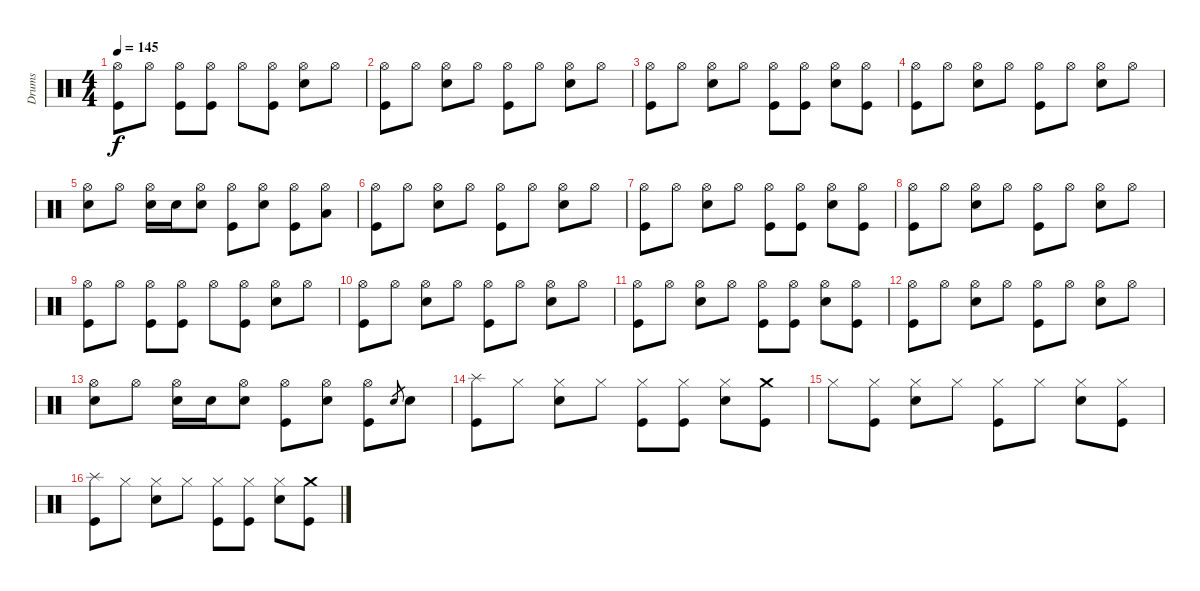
\track ("Drums" "Drums") {instrument percussion}
\staff {score}
\articulation defaults
\ts (4 4)
\tempo 145
\clef neutral
\ks c
("Hi-Hat (open)" "Kick (hit)").8{dy f} "Hi-Hat (open)".8 ("Hi-Hat (open)" "Kick (hit)").8 ("Hi-Hat (open)" "Kick (hit)").8 "Hi-Hat (open)".8 ("Hi-Hat (open)" "Kick (hit)").8 ("Hi-Hat (open)" "Snare (hit) 2").8 "Hi-Hat (open)".8 |
("Hi-Hat (open)" "Kick (hit)").8 "Hi-Hat (open)".8 ("Hi-Hat (open)" "Snare (hit) 2").8 "Hi-Hat (open)".8 ("Hi-Hat (open)" "Kick (hit)").8 "Hi-Hat (open)".8 ("Hi-Hat (open)" "Snare (hit) 2").8 "Hi-Hat (open)".8 |
("Hi-Hat (open)" "Kick (hit)").8 "Hi-Hat (open)".8 ("Hi-Hat (open)" "Snare (hit) 2").8 "Hi-Hat (open)".8 ("Hi-Hat (open)" "Kick (hit)").8 ("Hi-Hat (open)" "Kick (hit)").8 ("Hi-Hat (open)" "Snare (hit) 2").8 ("Hi-Hat (open)" "Kick (hit)").8 |
("Hi-Hat (open)" "Kick (hit)").8 "Hi-Hat (open)".8 ("Hi-Hat (open)" "Snare (hit) 2").8 "Hi-Hat (open)".8 ("Hi-Hat (open)" "Kick (hit)").8 "Hi-Hat (open)".8 ("Hi-Hat (open)" "Snare (hit) 2").8 "Hi-Hat (open)".8 |
("Hi-Hat (open)" "Snare (hit) 2").8 "Hi-Hat (open)".8 ("Hi-Hat (open)" "Snare (hit) 2").16 "Snare (hit) 2".16 ("Hi-Hat (open)" "Snare (hit) 2").8 ("Hi-Hat (open)" "Kick (hit)").8 ("Hi-Hat (open)" "Snare (hit) 2").8 ("Hi-Hat (open)" "Kick (hit)").8 ("Hi-Hat (open)" "Low Tom (hit)").8 |
("Hi-Hat (open)" "Kick (hit)").8 "Hi-Hat (open)".8 ("Hi-Hat (open)" "Snare (hit) 2").8 "Hi-Hat (open)".8 ("Hi-Hat (open)" "Kick (hit)").8 "Hi-Hat (open)".8 ("Hi-Hat (open)" "Snare (hit) 2").8 "Hi-Hat (open)".8 |
("Hi-Hat (open)" "Kick (hit)").8 "Hi-Hat (open)".8 ("Hi-Hat (open)" "Snare (hit) 2").8 "Hi-Hat (open)".8 ("Hi-Hat (open)" "Kick (hit)").8 ("Hi-Hat (open)" "Kick (hit)").8 ("Hi-Hat (open)" "Snare (hit) 2").8 ("Hi-Hat (open)" "Kick (hit)").8 |
("Hi-Hat (open)" "Kick (hit)").8 "Hi-Hat (open)".8 ("Hi-Hat (open)" "Snare (hit) 2").8 "Hi-Hat (open)".8 ("Hi-Hat (open)" "Kick (hit)").8 "Hi-Hat (open)".8 ("Hi-Hat (open)" "Snare (hit) 2").8 "Hi-Hat (open)".8 |
("Hi-Hat (open)" "Kick (hit)").8 "Hi-Hat (open)".8 ("Hi-Hat (open)" "Kick (hit)").8 ("Hi-Hat (open)" "Kick (hit)").8 "Hi-Hat (open)".8 ("Hi-Hat (open)" "Kick (hit)").8 ("Hi-Hat (open)" "Snare (hit) 2").8 "Hi-Hat (open)".8 |
("Hi-Hat (open)" "Kick (hit)").8 "Hi-Hat (open)".8 ("Hi-Hat (open)" "Snare (hit) 2").8 "Hi-Hat (open)".8 ("Hi-Hat (open)" "Kick (hit)").8 "Hi-Hat (open)".8 ("Hi-Hat (open)" "Snare (hit) 2").8 "Hi-Hat (open)".8 |
("Hi-Hat (open)" "Kick (hit)").8 "Hi-Hat (open)".8 ("Hi-Hat (open)" "Snare (hit) 2").8 "Hi-Hat (open)".8 ("Hi-Hat (open)" "Kick (hit)").8 ("Hi-Hat (open)" "Kick (hit)").8 ("Hi-Hat (open)" "Snare (hit) 2").8 ("Hi-Hat (open)" "Kick (hit)").8 |
("Hi-Hat (open)" "Kick (hit)").8 "Hi-Hat (open)".8 ("Hi-Hat (open)" "Snare (hit) 2").8 "Hi-Hat (open)".8 ("Hi-Hat (open)" "Kick (hit)").8 "Hi-Hat (open)".8 ("Hi-Hat (open)" "Snare (hit) 2").8 "Hi-Hat (open)".8 |
("Hi-Hat (open)" "Snare (hit) 2").8 "Hi-Hat (open)".8 ("Hi-Hat (open)" "Snare (hit) 2").16 "Snare (hit) 2".16 ("Hi-Hat (open)" "Snare (hit) 2").8 ("Hi-Hat (open)" "Kick (hit)").8 ("Hi-Hat (open)" "Snare (hit) 2").8 ("Hi-Hat (open)" "Kick (hit)").8 "Snare (hit) 2".8{gr} "Snare (hit) 2".8 |
("Splash (hit)" "Kick (hit)").8 "Hi-Hat (closed)".8 ("Hi-Hat (closed)" "Snare (hit) 2").8 "Hi-Hat (closed)".8 ("Hi-Hat (closed)" "Kick (hit)").8 ("Hi-Hat (closed)" "Kick (hit)").8 ("Hi-Hat (closed)" "Snare (hit) 2").8 ("Crash medium (hit)" "Kick (hit)").8 |
"Hi-Hat (closed)".8 ("Hi-Hat (closed)" "Kick (hit)").8 ("Hi-Hat (closed)" "Snare (hit) 2").8 "Hi-Hat (closed)".8 ("Hi-Hat (closed)" "Kick (hit)").8 "Hi-Hat (closed)".8 ("Hi-Hat (closed)" "Snare (hit) 2").8 ("Hi-Hat (closed)" "Kick (hit)").8 |
("Splash (hit)" "Kick (hit)").8 "Hi-Hat (closed)".8 ("Hi-Hat (closed)" "Snare (hit) 2").8 "Hi-Hat (closed)".8 ("Hi-Hat (closed)" "Kick (hit)").8 ("Hi-Hat (closed)" "Kick (hit)").8 ("Hi-Hat (closed)" "Snare (hit) 2").8 ("Crash medium (hit)" "Kick (hit)").8
